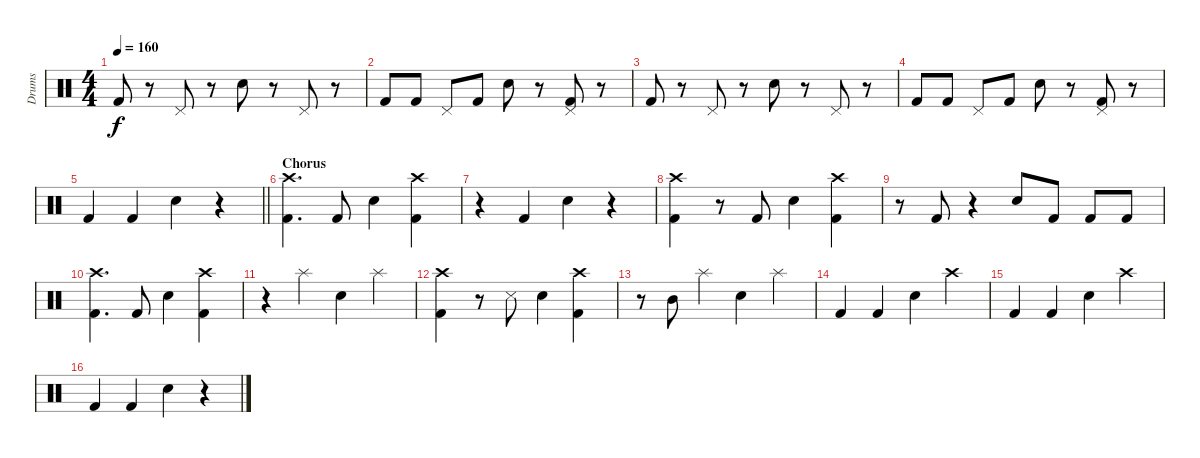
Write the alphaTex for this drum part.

\track ("Drums" "Drums") {instrument percussion}
\staff {score}
\articulation defaults
\ts (4 4)
\tempo 160
\clef neutral
\ks c "Kick (hit) 2".8{dy f}
r.8 "Pedal Hi-Hat (hit)".8 r.8 "Snare (hit) 2".8 r.8 "Pedal Hi-Hat (hit)".8 r.8 |
"Kick (hit) 2".8 "Kick (hit) 2".8 "Pedal Hi-Hat (hit)".8 "Kick (hit) 2".8 "Snare (hit) 2".8 r.8 ("Kick (hit) 2" "Pedal Hi-Hat (hit)").8 r.8 |
"Kick (hit) 2".8 r.8 "Pedal Hi-Hat (hit)".8 r.8 "Snare (hit) 2".8 r.8 "Pedal Hi-Hat (hit)".8 r.8 |
"Kick (hit) 2".8 "Kick (hit) 2".8 "Pedal Hi-Hat (hit)".8 "Kick (hit) 2".8 "Snare (hit) 2".8 r.8 ("Kick (hit) 2" "Pedal Hi-Hat (hit)").8 r.8 |
\barLineRight lightlight "Kick (hit) 2".4 "Kick (hit) 2".4 "Snare (hit) 2".4
r.4 |
\section ("" "Chorus")
("Kick (hit) 2" "Crash high (hit)").4{d} "Kick (hit) 2".8 "Snare (hit) 2".4 ("Kick (hit) 2" "Crash high (hit)").4 |
r.4 "Kick (hit) 2".4 "Snare (hit) 2".4 r.4 |
("Kick (hit) 2" "Crash high (hit)").4 r.8 "Kick (hit) 2".8 "Snare (hit) 2".4 ("Kick (hit) 2" "Crash high (hit)").4 |
r.8 "Kick (hit) 2".8 r.4 "Snare (hit) 2".8 "Kick (hit) 2".8 "Kick (hit) 2".8 "Kick (hit) 2".8 |
("Kick (hit) 2" "Crash high (hit)").4{d} "Kick (hit) 2".8 "Snare (hit) 2".4 ("Kick (hit) 2" "Crash high (hit)").4 |
r.4 "Splash (hit)".4 "Snare (hit) 2".4 "Splash (hit)".4 |
("Kick (hit) 2" "Crash high (hit)").4 r.8 "Snare (side stick) 3".8 "Snare (hit) 2".4 ("Kick (hit) 2" "Crash high (hit)").4 |
r.8 "Mid Tom (hit)".8 "Splash (hit)".4 "Snare (hit) 2".4 "Splash (hit)".4 |
"Kick (hit) 2".4 "Kick (hit) 2".4 "Snare (hit) 2".4 "Crash high (hit)".4 |
"Kick (hit) 2".4 "Kick (hit) 2".4 "Snare (hit) 2".4 "Crash high (hit)".4 |
"Kick (hit) 2".4 "Kick (hit) 2".4 "Snare (hit) 2".4 r.4
